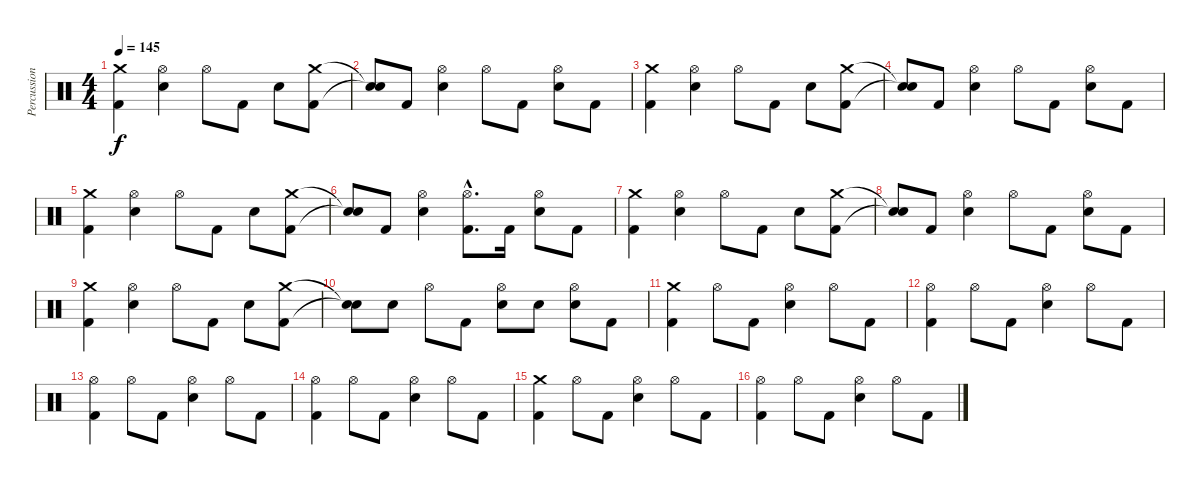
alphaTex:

\track ("Percussion" "Percussion") {instrument percussion}
\staff {score}
\articulation defaults
\ts (4 4)
\tempo 145
\clef neutral
\ks c
("Crash medium (hit)" "Kick (hit) 2").4{dy f} ("Hi-Hat (open)" "Snare (hit) 2").4 "Hi-Hat (open)".8 "Kick (hit) 2".8 "Snare (hit) 2".8 ("Crash medium (hit)" "Kick (hit) 2").8 |
("Snare (hit)"{t} "Snare (hit)"{t}).8 "Kick (hit) 2".8 ("Hi-Hat (open)" "Snare (hit) 2").4 "Hi-Hat (open)".8 "Kick (hit) 2".8 ("Hi-Hat (open)" "Snare (hit) 2").8 "Kick (hit) 2".8 |
("Crash medium (hit)" "Kick (hit) 2").4 ("Hi-Hat (open)" "Snare (hit) 2").4 "Hi-Hat (open)".8 "Kick (hit) 2".8 "Snare (hit) 2".8 ("Crash medium (hit)" "Kick (hit) 2").8 |
("Snare (hit)"{t} "Snare (hit)"{t}).8 "Kick (hit) 2".8 ("Hi-Hat (open)" "Snare (hit) 2").4 "Hi-Hat (open)".8 "Kick (hit) 2".8 ("Hi-Hat (open)" "Snare (hit) 2").8 "Kick (hit) 2".8 |
("Crash medium (hit)" "Kick (hit) 2").4 ("Hi-Hat (open)" "Snare (hit) 2").4 "Hi-Hat (open)".8 "Kick (hit) 2".8 "Snare (hit) 2".8 ("Crash medium (hit)" "Kick (hit) 2").8 |
("Snare (hit)"{t} "Snare (hit)"{t}).8 "Kick (hit) 2".8 ("Hi-Hat (open)" "Snare (hit) 2").4 ("Hi-Hat (open)"{hac} "Kick (hit) 2"{hac}).8{d} "Kick (hit) 2".16 ("Hi-Hat (open)" "Snare (hit) 2").8 "Kick (hit) 2".8 |
("Crash medium (hit)" "Kick (hit) 2").4 ("Hi-Hat (open)" "Snare (hit) 2").4 "Hi-Hat (open)".8 "Kick (hit) 2".8 "Snare (hit) 2".8 ("Crash medium (hit)" "Kick (hit) 2").8 |
("Snare (hit)"{t} "Snare (hit)"{t}).8 "Kick (hit) 2".8 ("Hi-Hat (open)" "Snare (hit) 2").4 "Hi-Hat (open)".8 "Kick (hit) 2".8 ("Hi-Hat (open)" "Snare (hit) 2").8 "Kick (hit) 2".8 |
("Crash medium (hit)" "Kick (hit) 2").4 ("Hi-Hat (open)" "Snare (hit) 2").4 "Hi-Hat (open)".8 "Kick (hit) 2".8 "Snare (hit) 2".8 ("Crash medium (hit)" "Kick (hit) 2").8 |
("Snare (hit)"{t} "Snare (hit)"{t}).8 "Snare (hit) 2".8 "Hi-Hat (open)".8 "Kick (hit) 2".8 ("Hi-Hat (open)" "Snare (hit) 2").8 "Snare (hit) 2".8 ("Hi-Hat (open)" "Snare (hit) 2").8 "Kick (hit) 2".8 |
("Crash medium (hit)" "Kick (hit) 2").4 "Hi-Hat (open)".8 "Kick (hit) 2".8 ("Hi-Hat (open)" "Snare (hit) 2").4 "Hi-Hat (open)".8 "Kick (hit) 2".8 |
("Hi-Hat (open)" "Kick (hit) 2").4 "Hi-Hat (open)".8 "Kick (hit) 2".8 ("Hi-Hat (open)" "Snare (hit) 2").4 "Hi-Hat (open)".8 "Kick (hit) 2".8 |
("Hi-Hat (open)" "Kick (hit) 2").4 "Hi-Hat (open)".8 "Kick (hit) 2".8 ("Hi-Hat (open)" "Snare (hit) 2").4 "Hi-Hat (open)".8 "Kick (hit) 2".8 |
("Hi-Hat (open)" "Kick (hit) 2").4 "Hi-Hat (open)".8 "Kick (hit) 2".8 ("Hi-Hat (open)" "Snare (hit) 2").4 "Hi-Hat (open)".8 "Kick (hit) 2".8 |
("Crash medium (hit)" "Kick (hit) 2").4 "Hi-Hat (open)".8 "Kick (hit) 2".8 ("Hi-Hat (open)" "Snare (hit) 2").4 "Hi-Hat (open)".8 "Kick (hit) 2".8 |
("Hi-Hat (open)" "Kick (hit) 2").4 "Hi-Hat (open)".8 "Kick (hit) 2".8 ("Hi-Hat (open)" "Snare (hit) 2").4 "Hi-Hat (open)".8 "Kick (hit) 2".8
